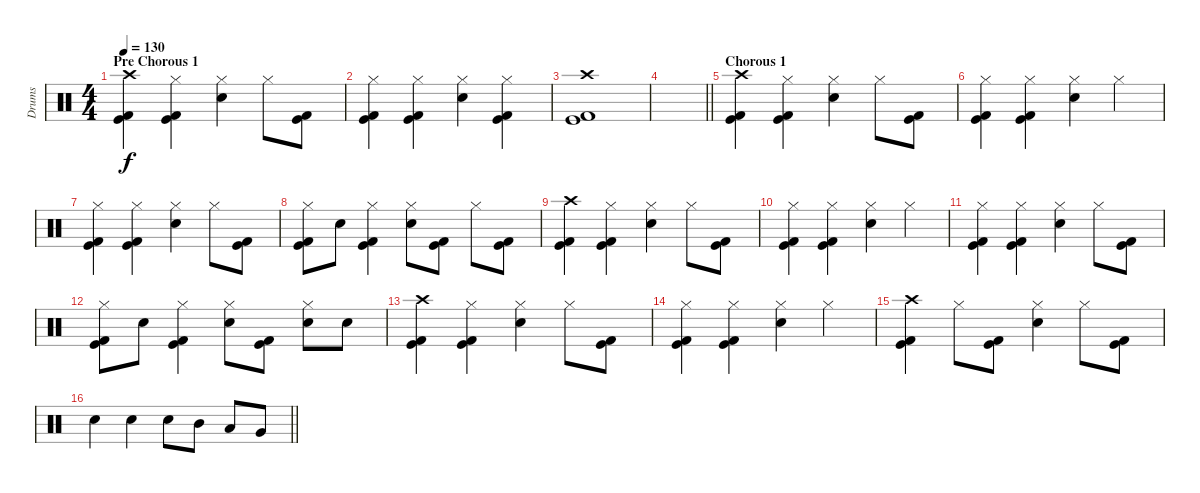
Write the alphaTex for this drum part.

\track ("Drums" "Drums") {instrument percussion}
\staff {score}
\articulation defaults
\ts (4 4)
\section ("" "Pre Chorous 1")
\tempo 130
\clef neutral
\ks c
("Crash high (hit)" "Kick (hit)" "Kick (hit) 2").4{dy f} ("Hi-Hat (closed)" "Kick (hit)" "Kick (hit) 2").4 ("Hi-Hat (closed)" "Electric Snare (hit)").4 "Hi-Hat (closed)".8 ("Kick (hit)" "Kick (hit) 2").8 |
("Hi-Hat (closed)" "Kick (hit)" "Kick (hit) 2").4 ("Hi-Hat (closed)" "Kick (hit)" "Kick (hit) 2").4 ("Hi-Hat (closed)" "Electric Snare (hit)").4 ("Hi-Hat (closed)" "Kick (hit)" "Kick (hit) 2").4 |
("Crash high (hit)" "Kick (hit)" "Kick (hit) 2").1 |
\barLineRight lightlight
|
\section ("" "Chorous 1")
("Crash high (hit)" "Kick (hit)" "Kick (hit) 2").4 ("Hi-Hat (closed)" "Kick (hit)" "Kick (hit) 2").4 ("Hi-Hat (closed)" "Electric Snare (hit)").4 "Hi-Hat (closed)".8 ("Kick (hit)" "Kick (hit) 2").8 |
("Hi-Hat (closed)" "Kick (hit)" "Kick (hit) 2").4 ("Hi-Hat (closed)" "Kick (hit)" "Kick (hit) 2").4 ("Hi-Hat (closed)" "Electric Snare (hit)").4 "Hi-Hat (closed)".4 |
("Hi-Hat (closed)" "Kick (hit)" "Kick (hit) 2").4 ("Hi-Hat (closed)" "Kick (hit)" "Kick (hit) 2").4 ("Hi-Hat (closed)" "Electric Snare (hit)").4 "Hi-Hat (closed)".8 ("Kick (hit)" "Kick (hit) 2").8 |
("Hi-Hat (closed)" "Kick (hit)" "Kick (hit) 2").8 "Electric Snare (hit)".8 ("Hi-Hat (closed)" "Kick (hit)" "Kick (hit) 2").4 ("Hi-Hat (closed)" "Electric Snare (hit)").8 ("Kick (hit)" "Kick (hit) 2").8 "Hi-Hat (closed)".8 ("Kick (hit)" "Kick (hit) 2").8 |
("Crash high (hit)" "Kick (hit)" "Kick (hit) 2").4 ("Hi-Hat (closed)" "Kick (hit)" "Kick (hit) 2").4 ("Hi-Hat (closed)" "Electric Snare (hit)").4 "Hi-Hat (closed)".8 ("Kick (hit)" "Kick (hit) 2").8 |
("Hi-Hat (closed)" "Kick (hit)" "Kick (hit) 2").4 ("Hi-Hat (closed)" "Kick (hit)" "Kick (hit) 2").4 ("Hi-Hat (closed)" "Electric Snare (hit)").4 "Hi-Hat (closed)".4 |
("Hi-Hat (closed)" "Kick (hit)" "Kick (hit) 2").4 ("Hi-Hat (closed)" "Kick (hit)" "Kick (hit) 2").4 ("Hi-Hat (closed)" "Electric Snare (hit)").4 "Hi-Hat (closed)".8 ("Kick (hit)" "Kick (hit) 2").8 |
("Hi-Hat (closed)" "Kick (hit)" "Kick (hit) 2").8 "Electric Snare (hit)".8 ("Hi-Hat (closed)" "Kick (hit)" "Kick (hit) 2").4 ("Hi-Hat (closed)" "Electric Snare (hit)").8 ("Kick (hit)" "Kick (hit) 2").8 ("Hi-Hat (closed)" "Electric Snare (hit)").8 "Electric Snare (hit)".8 |
("Crash high (hit)" "Kick (hit)" "Kick (hit) 2").4 ("Hi-Hat (closed)" "Kick (hit)" "Kick (hit) 2").4 ("Hi-Hat (closed)" "Electric Snare (hit)").4 "Hi-Hat (closed)".8 ("Kick (hit)" "Kick (hit) 2").8 |
("Hi-Hat (closed)" "Kick (hit)" "Kick (hit) 2").4 ("Hi-Hat (closed)" "Kick (hit)" "Kick (hit) 2").4 ("Hi-Hat (closed)" "Electric Snare (hit)").4 "Hi-Hat (closed)".4 |
("Crash high (hit)" "Kick (hit)" "Kick (hit) 2").4 "Hi-Hat (closed)".8 ("Kick (hit)" "Kick (hit) 2").8 ("Hi-Hat (closed)" "Electric Snare (hit)").4 "Hi-Hat (closed)".8 ("Kick (hit)" "Kick (hit) 2").8 |
\barLineRight lightlight "Electric Snare (hit)".4 "Electric Snare (hit)".4 "Electric Snare (hit)".8 "Mid Tom (hit)".8 "Low Tom (hit)".8 "Very Low Tom (hit)".8
